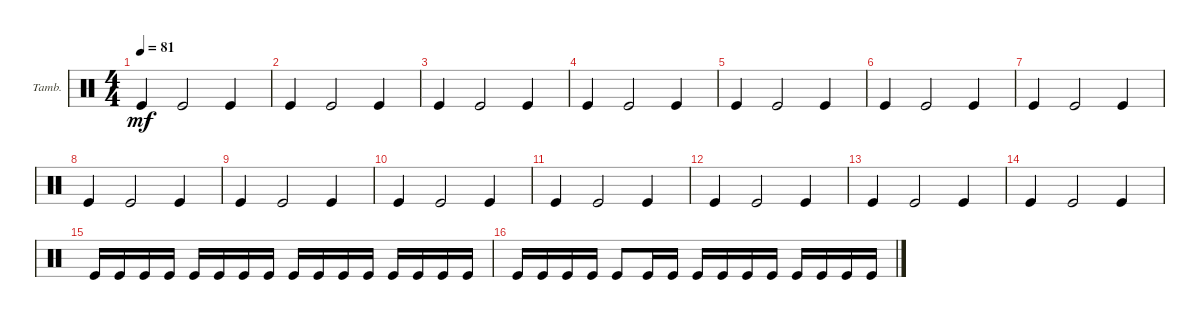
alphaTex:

\bracketExtendMode groupsimilarinstruments
\firstSystemTrackNameOrientation horizontal
\otherSystemsTrackNameOrientation horizontal
\track ("Tambourine" "Tamb.") {instrument percussion}
\staff {score}
\articulation defaults
\ts (4 4)
\tempo 81
\clef neutral
\ks c "Kick (hit)".4{dy mf} "Kick (hit)".2 "Kick (hit)".4
|
"Kick (hit)".4 "Kick (hit)".2 "Kick (hit)".4 |
"Kick (hit)".4 "Kick (hit)".2 "Kick (hit)".4 |
"Kick (hit)".4 "Kick (hit)".2 "Kick (hit)".4 |
"Kick (hit)".4 "Kick (hit)".2 "Kick (hit)".4 |
"Kick (hit)".4 "Kick (hit)".2 "Kick (hit)".4 |
"Kick (hit)".4 "Kick (hit)".2 "Kick (hit)".4 |
"Kick (hit)".4 "Kick (hit)".2 "Kick (hit)".4 |
"Kick (hit)".4 "Kick (hit)".2 "Kick (hit)".4 |
"Kick (hit)".4 "Kick (hit)".2 "Kick (hit)".4 |
"Kick (hit)".4 "Kick (hit)".2 "Kick (hit)".4 |
"Kick (hit)".4 "Kick (hit)".2 "Kick (hit)".4 |
"Kick (hit)".4 "Kick (hit)".2 "Kick (hit)".4 |
"Kick (hit)".4 "Kick (hit)".2 "Kick (hit)".4 |
"Kick (hit)".16 "Kick (hit)".16 "Kick (hit)".16 "Kick (hit)".16 "Kick (hit)".16 "Kick (hit)".16 "Kick (hit)".16 "Kick (hit)".16 "Kick (hit)".16 "Kick (hit)".16 "Kick (hit)".16 "Kick (hit)".16 "Kick (hit)".16 "Kick (hit)".16 "Kick (hit)".16 "Kick (hit)".16 |
"Kick (hit)".16 "Kick (hit)".16 "Kick (hit)".16 "Kick (hit)".16 "Kick (hit)".8 "Kick (hit)".16 "Kick (hit)".16 "Kick (hit)".16 "Kick (hit)".16 "Kick (hit)".16 "Kick (hit)".16 "Kick (hit)".16 "Kick (hit)".16 "Kick (hit)".16 "Kick (hit)".16
